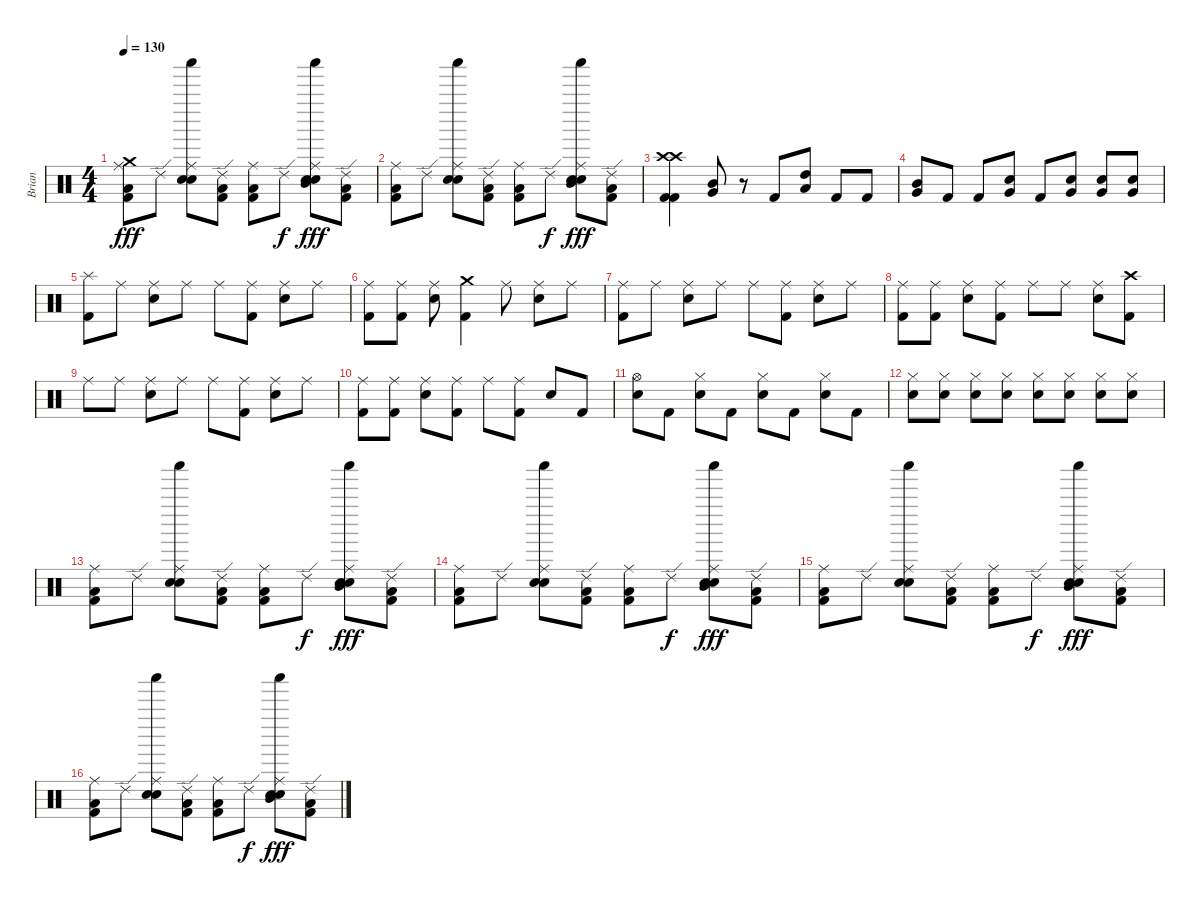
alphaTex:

\track ("Brian" "Brian") {instrument percussion}
\staff {score}
\articulation defaults
\ts (4 4)
\tempo 130
\clef neutral
\ks c
("Crash medium (hit)" "Ride (middle)" "Low Tom (hit)" "Kick (hit) 2").8{dy fff} "Ride (edge) 2".8 ("Shaker (hit)" "Ride (middle)" "Hand Clap (hit)" "Snare (hit) 2").8 ("Ride (edge) 2" "Low Tom (hit)" "Kick (hit) 2").8 ("Ride (middle)" "Low Tom (hit)" "Kick (hit) 2").8 "Ride (edge) 2".8{dy f} ("Shaker (hit)" "Ride (middle)" "Hand Clap (hit)" "Snare (hit) 2" "Mid Tom (hit)").8{dy fff} ("Ride (edge) 2" "Kick (hit) 2" "Low Tom (hit)").8 |
("Ride (middle)" "Low Tom (hit)" "Kick (hit) 2").8 "Ride (edge) 2".8 ("Shaker (hit)" "Ride (middle)" "Hand Clap (hit)" "Snare (hit) 2").8 ("Ride (edge) 2" "Low Tom (hit)" "Kick (hit) 2").8 ("Ride (middle)" "Low Tom (hit)" "Kick (hit) 2").8 "Ride (edge) 2".8{dy f} ("Shaker (hit)" "Ride (middle)" "Hand Clap (hit)" "Snare (hit) 2" "Mid Tom (hit)").8{dy fff} ("Ride (edge) 2" "Kick (hit) 2" "Low Tom (hit)").8 |
("Crash high (hit)" "Crash high (hit)" "Kick (hit) 2" "Kick (hit) 2").4 ("Mid Tom (hit)" "Very Low Tom (hit)").8 r.8 "Kick (hit) 2".8 ("High Tom (hit)" "Low Tom (hit)").8 "Kick (hit) 2".8 "Kick (hit) 2".8 |
("Mid Tom (hit)" "Very Low Tom (hit)").8 "Kick (hit) 2".8 "Kick (hit) 2".8 ("Very Low Tom (hit)" "Electric Snare (hit)").8 "Kick (hit) 2".8 ("Very Low Tom (hit)" "Electric Snare (hit)").8 ("Very Low Tom (hit)" "Electric Snare (hit)").8 ("Very Low Tom (hit)" "Electric Snare (hit)").8 |
("Splash (hit)" "Kick (hit) 2").8 "Ride (middle)".8 ("Ride (middle)" "Electric Snare (hit)").8 "Ride (middle)".8 "Ride (middle)".8 ("Ride (middle)" "Kick (hit) 2").8 ("Ride (middle)" "Electric Snare (hit)").8 "Ride (middle)".8 |
("Ride (middle)" "Kick (hit) 2").8 ("Ride (middle)" "Kick (hit) 2").8 ("Ride (middle)" "Electric Snare (hit)").8 ("Crash medium (hit)" "Kick (hit) 2").4 "Ride (middle)".8 ("Ride (middle)" "Electric Snare (hit)").8 "Ride (middle)".8 |
("Ride (middle)" "Kick (hit) 2").8 "Ride (middle)".8 ("Ride (middle)" "Electric Snare (hit)").8 "Ride (middle)".8 "Ride (middle)".8 ("Ride (middle)" "Kick (hit) 2").8 ("Ride (middle)" "Electric Snare (hit)").8 "Ride (middle)".8 |
("Ride (middle)" "Kick (hit) 2").8 ("Ride (middle)" "Kick (hit) 2").8 ("Ride (middle)" "Electric Snare (hit)").8 ("Ride (middle)" "Kick (hit) 2").8 "Ride (middle)".8 "Ride (middle)".8 ("Ride (middle)" "Electric Snare (hit)").8 ("Crash high (hit)" "Kick (hit) 2").8 |
"Ride (middle)".8 "Ride (middle)".8 ("Ride (middle)" "Electric Snare (hit)").8 "Ride (middle)".8 "Ride (middle)".8 ("Ride (middle)" "Kick (hit) 2").8 ("Ride (middle)" "Electric Snare (hit)").8 "Ride (middle)".8 |
("Ride (middle)" "Kick (hit) 2").8 ("Ride (middle)" "Kick (hit) 2").8 ("Ride (middle)" "Electric Snare (hit)").8 ("Ride (middle)" "Kick (hit) 2").8 "Ride (middle)".8 ("Ride (middle)" "Kick (hit) 2").8 "Electric Snare (hit)".8 "Kick (hit) 2".8 |
("Hi-Hat (open)" "Electric Snare (hit)").8 "Kick (hit) 2".8 ("Hi-Hat (closed)" "Electric Snare (hit)").8 "Kick (hit) 2".8 ("Hi-Hat (closed)" "Electric Snare (hit)").8 "Kick (hit) 2".8 ("Hi-Hat (closed)" "Electric Snare (hit)").8 "Kick (hit) 2".8 |
("Hi-Hat (closed)" "Electric Snare (hit)").8 ("Hi-Hat (closed)" "Electric Snare (hit)").8 ("Hi-Hat (closed)" "Electric Snare (hit)").8 ("Hi-Hat (closed)" "Electric Snare (hit)").8 ("Hi-Hat (closed)" "Electric Snare (hit)").8 ("Hi-Hat (closed)" "Electric Snare (hit)").8 ("Hi-Hat (closed)" "Electric Snare (hit)").8 ("Hi-Hat (closed)" "Electric Snare (hit)").8 |
("Ride (middle)" "Low Tom (hit)" "Kick (hit) 2").8 "Ride (edge) 2".8 ("Shaker (hit)" "Ride (middle)" "Hand Clap (hit)" "Snare (hit) 2").8 ("Ride (edge) 2" "Low Tom (hit)" "Kick (hit) 2").8 ("Ride (middle)" "Low Tom (hit)" "Kick (hit) 2").8 "Ride (edge) 2".8{dy f} ("Shaker (hit)" "Ride (middle)" "Hand Clap (hit)" "Snare (hit) 2" "Mid Tom (hit)").8{dy fff} ("Ride (edge) 2" "Kick (hit) 2" "Low Tom (hit)").8 |
("Ride (middle)" "Low Tom (hit)" "Kick (hit) 2").8 "Ride (edge) 2".8 ("Shaker (hit)" "Ride (middle)" "Hand Clap (hit)" "Snare (hit) 2").8 ("Ride (edge) 2" "Low Tom (hit)" "Kick (hit) 2").8 ("Ride (middle)" "Low Tom (hit)" "Kick (hit) 2").8 "Ride (edge) 2".8{dy f} ("Shaker (hit)" "Ride (middle)" "Hand Clap (hit)" "Snare (hit) 2" "Mid Tom (hit)").8{dy fff} ("Ride (edge) 2" "Kick (hit) 2" "Low Tom (hit)").8 |
("Ride (middle)" "Low Tom (hit)" "Kick (hit) 2").8 "Ride (edge) 2".8 ("Shaker (hit)" "Ride (middle)" "Hand Clap (hit)" "Snare (hit) 2").8 ("Ride (edge) 2" "Low Tom (hit)" "Kick (hit) 2").8 ("Ride (middle)" "Low Tom (hit)" "Kick (hit) 2").8 "Ride (edge) 2".8{dy f} ("Shaker (hit)" "Ride (middle)" "Hand Clap (hit)" "Snare (hit) 2" "Mid Tom (hit)").8{dy fff} ("Ride (edge) 2" "Kick (hit) 2" "Low Tom (hit)").8 |
("Ride (middle)" "Low Tom (hit)" "Kick (hit) 2").8 "Ride (edge) 2".8 ("Shaker (hit)" "Ride (middle)" "Hand Clap (hit)" "Snare (hit) 2").8 ("Ride (edge) 2" "Low Tom (hit)" "Kick (hit) 2").8 ("Ride (middle)" "Low Tom (hit)" "Kick (hit) 2").8 "Ride (edge) 2".8{dy f} ("Shaker (hit)" "Ride (middle)" "Hand Clap (hit)" "Snare (hit) 2" "Mid Tom (hit)").8{dy fff} ("Ride (edge) 2" "Kick (hit) 2" "Low Tom (hit)").8
